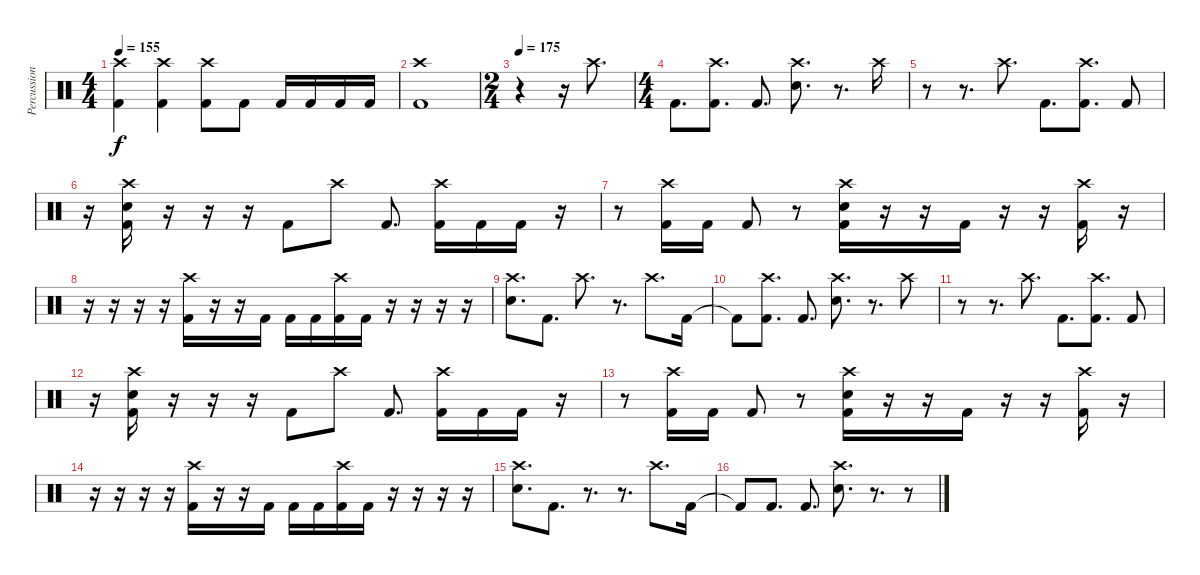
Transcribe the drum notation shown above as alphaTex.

\track ("Percussion" "Percussion") {instrument percussion}
\staff {score}
\articulation defaults
\ts (4 4)
\tempo 155
\clef neutral
\ks c
("Crash high (hit)" "Kick (hit) 2").4{dy f} ("Crash high (hit)" "Kick (hit) 2").4 ("Crash high (hit)" "Kick (hit) 2").8 "Kick (hit) 2".8 "Kick (hit) 2".16 "Kick (hit) 2".16 "Kick (hit) 2".16 "Kick (hit) 2".16 |
("Crash high (hit)" "Kick (hit) 2").1 |
\ts (2 4)
\tempo 175
r.4 r.16 "Crash high (hit)".8{d} |
\ts (4 4)
"Kick (hit) 2".8{d} ("Crash high (hit)" "Kick (hit) 2").8{d} "Kick (hit) 2".8{d} ("Crash high (hit)" "Snare (hit) 2").8{d} r.8{d} "Crash high (hit)".16 |
r.8 r.8{d} "Crash high (hit)".8{d} "Kick (hit) 2".8{d} ("Crash high (hit)" "Kick (hit) 2").8{d} "Kick (hit) 2".8 |
r.16 ("Crash high (hit)" "Snare (hit) 2" "Kick (hit) 2").16 r.16 r.16 r.16 "Kick (hit) 2".8 "Crash high (hit)".8 "Kick (hit) 2".8{d} ("Crash high (hit)" "Kick (hit) 2").16 "Kick (hit) 2".16 "Kick (hit) 2".16 r.16 |
r.8 ("Crash high (hit)" "Kick (hit) 2").16 "Kick (hit) 2".16 "Kick (hit) 2".8 r.8 ("Crash high (hit)" "Snare (hit) 2" "Kick (hit) 2").16 r.16 r.16 "Kick (hit) 2".16 r.16 r.16 ("Crash high (hit)" "Kick (hit) 2").16 r.16 |
r.16 r.16 r.16 r.16 ("Crash high (hit)" "Kick (hit) 2").16 r.16 r.16 "Kick (hit) 2".16 "Kick (hit) 2".16 "Kick (hit) 2".16 ("Crash high (hit)" "Kick (hit) 2").16 "Kick (hit) 2".16 r.16 r.16 r.16 r.16 |
("Crash high (hit)" "Snare (hit) 2").8{d} "Kick (hit) 2".8{d} "Crash high (hit)".8{d} r.8{d} "Crash high (hit)".8{d} "Kick (hit) 2".16 |
"Kick (hit) 2"{t}.8 ("Crash high (hit)" "Kick (hit) 2").8{d} "Kick (hit) 2".8{d} ("Crash high (hit)" "Snare (hit) 2").8{d} r.8{d} "Crash high (hit)".8 |
r.8 r.8{d} "Crash high (hit)".8{d} "Kick (hit) 2".8{d} ("Crash high (hit)" "Kick (hit) 2").8{d} "Kick (hit) 2".8 |
r.16 ("Crash high (hit)" "Snare (hit) 2" "Kick (hit) 2").16 r.16 r.16 r.16 "Kick (hit) 2".8 "Crash high (hit)".8 "Kick (hit) 2".8{d} ("Crash high (hit)" "Kick (hit) 2").16 "Kick (hit) 2".16 "Kick (hit) 2".16 r.16 |
r.8 ("Crash high (hit)" "Kick (hit) 2").16 "Kick (hit) 2".16 "Kick (hit) 2".8 r.8 ("Crash high (hit)" "Snare (hit) 2" "Kick (hit) 2").16 r.16 r.16 "Kick (hit) 2".16 r.16 r.16 ("Crash high (hit)" "Kick (hit) 2").16 r.16 |
r.16 r.16 r.16 r.16 ("Crash high (hit)" "Kick (hit) 2").16 r.16 r.16 "Kick (hit) 2".16 "Kick (hit) 2".16 "Kick (hit) 2".16 ("Crash high (hit)" "Kick (hit) 2").16 "Kick (hit) 2".16 r.16 r.16 r.16 r.16 |
("Crash high (hit)" "Snare (hit) 2").8{d} "Kick (hit) 2".8{d} r.8{d} r.8{d} "Crash high (hit)".8{d} "Kick (hit) 2".16 |
"Kick (hit) 2"{t}.8 "Kick (hit) 2".8{d} "Kick (hit) 2".8{d} ("Crash high (hit)" "Snare (hit) 2").8{d} r.8{d} r.8
